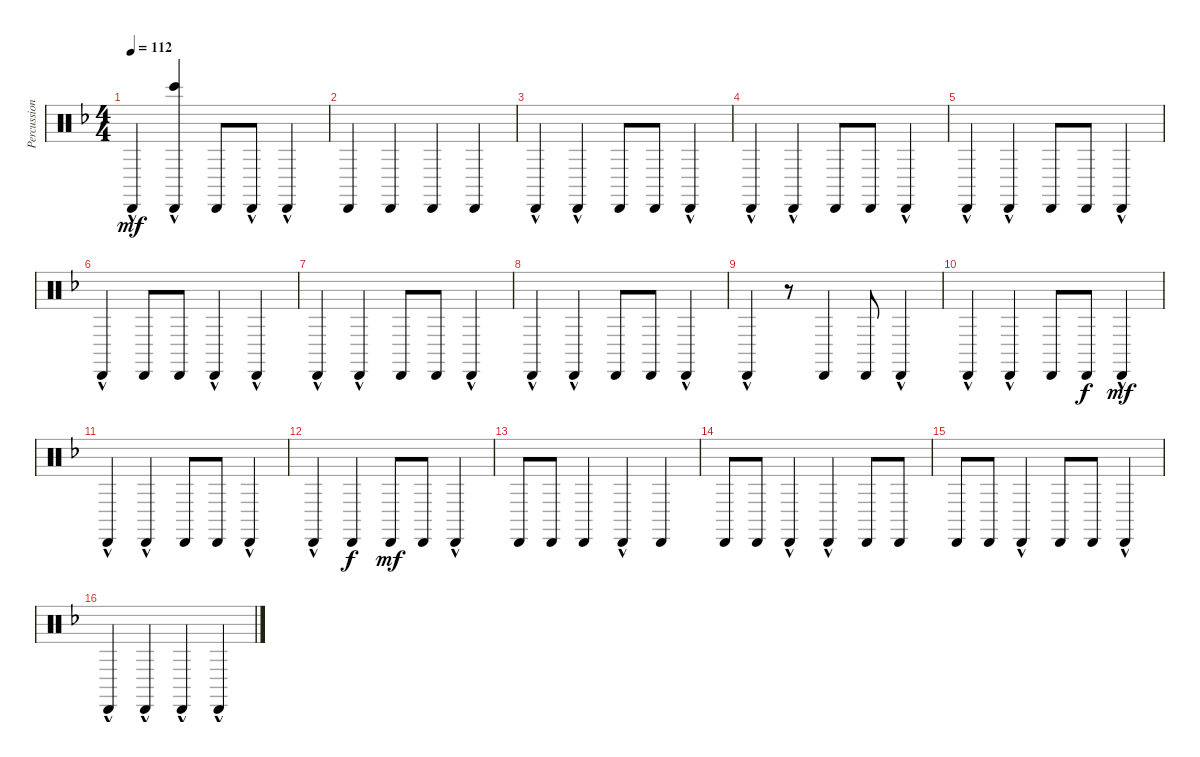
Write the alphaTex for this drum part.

\track ("Percussion" "Percussion") {instrument percussion}
\staff {score}
\articulation defaults
\ts (4 4)
\tempo 112
\clef neutral
\ks f "Cabasa (hit)"{hac}.4{dy mf}
("Cabasa (hit)"{hac} "Bongo High (hit)").4 "Cabasa (hit)".8 "Cabasa (hit)"{hac}.8 "Cabasa (hit)"{hac}.4 |
"Cabasa (hit)".4 "Cabasa (hit)".4 "Cabasa (hit)".4 "Cabasa (hit)".4 |
"Cabasa (hit)"{hac}.4 "Cabasa (hit)"{hac}.4 "Cabasa (hit)".8 "Cabasa (hit)".8 "Cabasa (hit)"{hac}.4 |
"Cabasa (hit)"{hac}.4 "Cabasa (hit)"{hac}.4 "Cabasa (hit)".8 "Cabasa (hit)".8 "Cabasa (hit)"{hac}.4 |
"Cabasa (hit)"{hac}.4 "Cabasa (hit)"{hac}.4 "Cabasa (hit)".8 "Cabasa (hit)".8 "Cabasa (hit)"{hac}.4 |
"Cabasa (hit)"{hac}.4 "Cabasa (hit)".8 "Cabasa (hit)".8 "Cabasa (hit)"{hac}.4 "Cabasa (hit)"{hac}.4 |
"Cabasa (hit)"{hac}.4 "Cabasa (hit)"{hac}.4 "Cabasa (hit)".8 "Cabasa (hit)".8 "Cabasa (hit)"{hac}.4 |
"Cabasa (hit)"{hac}.4 "Cabasa (hit)"{hac}.4 "Cabasa (hit)".8 "Cabasa (hit)".8 "Cabasa (hit)"{hac}.4 |
"Cabasa (hit)"{hac}.4 r.8 "Cabasa (hit)".4 "Cabasa (hit)".8 "Cabasa (hit)"{hac}.4 |
"Cabasa (hit)"{hac}.4 "Cabasa (hit)"{hac}.4 "Cabasa (hit)".8 "Cabasa (hit)".8{dy f} "Cabasa (hit)"{hac}.4{dy mf} |
"Cabasa (hit)"{hac}.4 "Cabasa (hit)"{hac}.4 "Cabasa (hit)".8 "Cabasa (hit)".8 "Cabasa (hit)"{hac}.4 |
"Cabasa (hit)"{hac}.4 "Cabasa (hit)".4{dy f} "Cabasa (hit)".8{dy mf} "Cabasa (hit)".8 "Cabasa (hit)"{hac}.4 |
"Cabasa (hit)".8 "Cabasa (hit)".8 "Cabasa (hit)".4 "Cabasa (hit)"{hac}.4 "Cabasa (hit)".4 |
"Cabasa (hit)".8 "Cabasa (hit)".8 "Cabasa (hit)"{hac}.4 "Cabasa (hit)"{hac}.4 "Cabasa (hit)".8 "Cabasa (hit)".8 |
"Cabasa (hit)".8 "Cabasa (hit)".8 "Cabasa (hit)"{hac}.4 "Cabasa (hit)".8 "Cabasa (hit)".8 "Cabasa (hit)"{hac}.4 |
"Cabasa (hit)"{hac}.4 "Cabasa (hit)"{hac}.4 "Cabasa (hit)"{hac}.4 "Cabasa (hit)"{hac}.4
